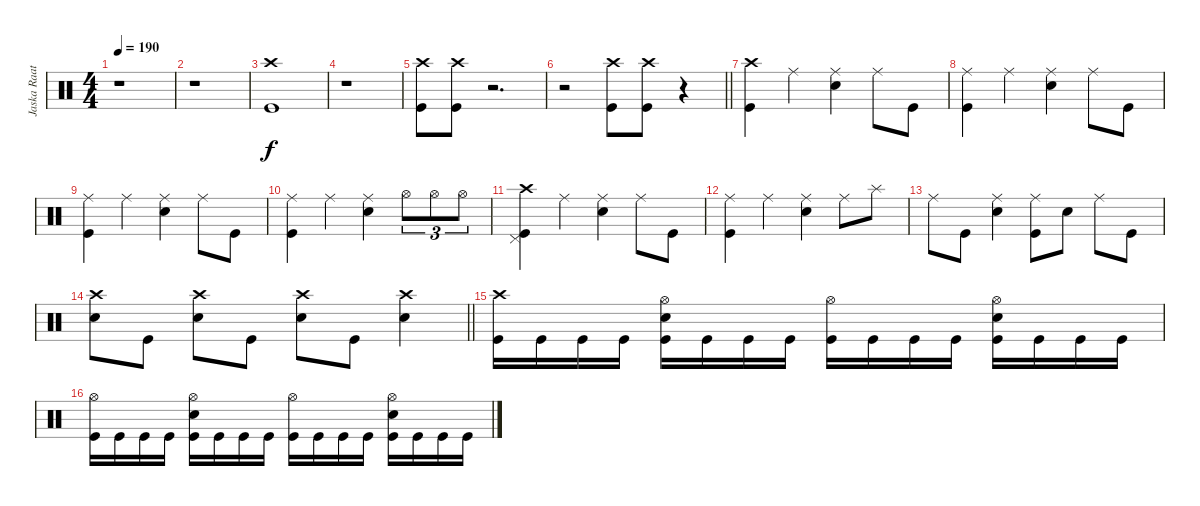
\track ("Jaska Raatikainen" "Jaska Raat") {instrument percussion}
\staff {score}
\articulation defaults
\ts (4 4)
\tempo 190
\clef neutral
\ks c
r.1{dy f} |
r.1 |
("Crash high (hit)" "Kick (hit)").1 |
r.1 |
("Crash high (hit)" "Kick (hit)").8 ("Crash high (hit)" "Kick (hit)").8 r.2{d} |
\barLineRight lightlight
r.2 ("Crash high (hit)" "Kick (hit)").8 ("Crash high (hit)" "Kick (hit)").8 r.4 |
("Crash high (hit)" "Kick (hit)").4 "Ride (middle)".4 ("Ride (middle)" "Snare (hit) 2").4 "Ride (middle)".8 "Kick (hit)".8 |
("Ride (middle)" "Kick (hit)").4 "Ride (middle)".4 ("Ride (middle)" "Snare (hit) 2").4 "Ride (middle)".8 "Kick (hit)".8 |
("Ride (middle)" "Kick (hit)").4 "Ride (middle)".4 ("Ride (middle)" "Snare (hit) 2").4 "Ride (middle)".8 "Kick (hit)".8 |
("Ride (middle)" "Kick (hit)").4 "Ride (middle)".4 ("Ride (middle)" "Snare (hit) 2").4 "Hi-Hat (open)".8{tu (3 2)} "Hi-Hat (open)".8{tu (3 2)} "Hi-Hat (open)".8{tu (3 2)} |
("Crash high (hit)" "Pedal Hi-Hat (hit)" "Kick (hit)").4 "Ride (middle)".4 ("Ride (middle)" "Snare (hit) 2").4 "Ride (middle)".8 "Kick (hit)".8 |
("Ride (middle)" "Kick (hit)").4 "Ride (middle)".4 ("Ride (middle)" "Snare (hit) 2").4 "Ride (middle)".8 "Splash (hit)".8 |
"Ride (middle)".8 "Kick (hit)".8 ("Ride (middle)" "Snare (hit) 2").4 ("Ride (middle)" "Kick (hit)").8 "Snare (hit) 2".8 "Ride (middle)".8 "Kick (hit)".8 |
\barLineRight lightlight
("Crash high (hit)" "Snare (hit) 2").8 "Kick (hit)".8 ("Crash high (hit)" "Snare (hit) 2").8 "Kick (hit)".8 ("Crash high (hit)" "Snare (hit) 2").8 "Kick (hit)".8 ("Crash high (hit)" "Snare (hit) 2").4 |
("Crash high (hit)" "Kick (hit)").16 "Kick (hit)".16 "Kick (hit)".16 "Kick (hit)".16 ("Hi-Hat (open)" "Snare (hit) 2" "Kick (hit)").16 "Kick (hit)".16 "Kick (hit)".16 "Kick (hit)".16 ("Hi-Hat (open)" "Kick (hit)").16 "Kick (hit)".16 "Kick (hit)".16 "Kick (hit)".16 ("Hi-Hat (open)" "Snare (hit) 2" "Kick (hit)").16 "Kick (hit)".16 "Kick (hit)".16 "Kick (hit)".16 |
("Hi-Hat (open)" "Kick (hit)").16 "Kick (hit)".16 "Kick (hit)".16 "Kick (hit)".16 ("Hi-Hat (open)" "Snare (hit) 2" "Kick (hit)").16 "Kick (hit)".16 "Kick (hit)".16 "Kick (hit)".16 ("Hi-Hat (open)" "Kick (hit)").16 "Kick (hit)".16 "Kick (hit)".16 "Kick (hit)".16 ("Hi-Hat (open)" "Snare (hit) 2" "Kick (hit)").16 "Kick (hit)".16 "Kick (hit)".16 "Kick (hit)".16
